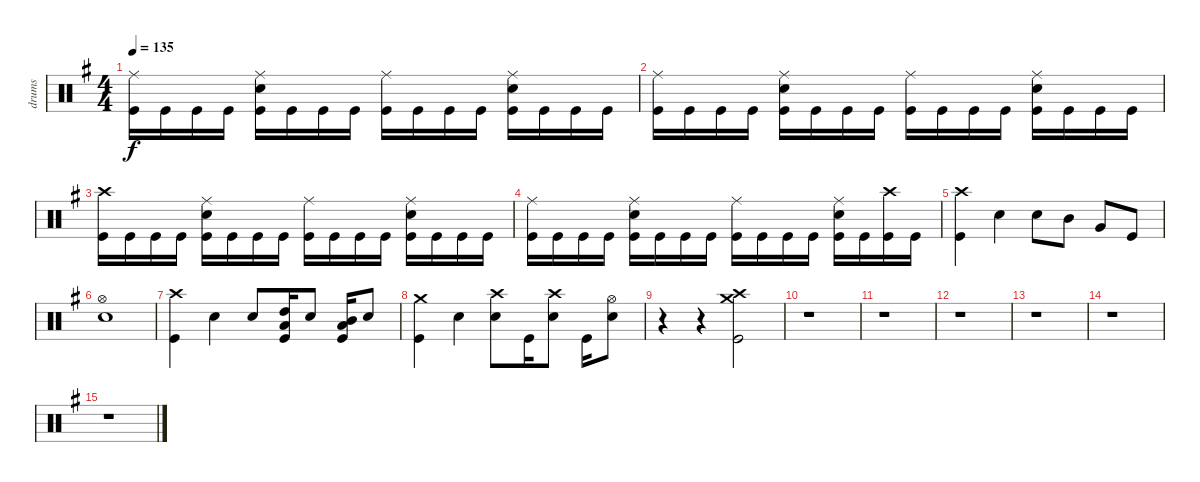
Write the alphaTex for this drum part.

\track ("drums" "drums") {instrument percussion}
\staff {score}
\articulation defaults
\ts (4 4)
\tempo 135
\clef neutral
\ks eminor
("Ride (middle)" "Kick (hit)").16{dy f} "Kick (hit)".16 "Kick (hit)".16 "Kick (hit)".16 ("Ride (middle)" "Snare (hit) 2" "Kick (hit)").16 "Kick (hit)".16 "Kick (hit)".16 "Kick (hit)".16 ("Ride (middle)" "Kick (hit)").16 "Kick (hit)".16 "Kick (hit)".16 "Kick (hit)".16 ("Ride (middle)" "Snare (hit) 2" "Kick (hit)").16 "Kick (hit)".16 "Kick (hit)".16 "Kick (hit)".16 |
("Ride (middle)" "Kick (hit)").16 "Kick (hit)".16 "Kick (hit)".16 "Kick (hit)".16 ("Ride (middle)" "Snare (hit) 2" "Kick (hit)").16 "Kick (hit)".16 "Kick (hit)".16 "Kick (hit)".16 ("Ride (middle)" "Kick (hit)").16 "Kick (hit)".16 "Kick (hit)".16 "Kick (hit)".16 ("Ride (middle)" "Snare (hit) 2" "Kick (hit)").16 "Kick (hit)".16 "Kick (hit)".16 "Kick (hit)".16 |
("Crash high (hit)" "Kick (hit)").16 "Kick (hit)".16 "Kick (hit)".16 "Kick (hit)".16 ("Ride (middle)" "Snare (hit) 2" "Kick (hit)").16 "Kick (hit)".16 "Kick (hit)".16 "Kick (hit)".16 ("Ride (middle)" "Kick (hit)").16 "Kick (hit)".16 "Kick (hit)".16 "Kick (hit)".16 ("Ride (middle)" "Snare (hit) 2" "Kick (hit)").16 "Kick (hit)".16 "Kick (hit)".16 "Kick (hit)".16 |
("Ride (middle)" "Kick (hit)").16 "Kick (hit)".16 "Kick (hit)".16 "Kick (hit)".16 ("Ride (middle)" "Snare (hit) 2" "Kick (hit)").16 "Kick (hit)".16 "Kick (hit)".16 "Kick (hit)".16 ("Ride (middle)" "Kick (hit)").16 "Kick (hit)".16 "Kick (hit)".16 "Kick (hit)".16 ("Ride (middle)" "Snare (hit) 2" "Kick (hit)").16 "Kick (hit)".16 ("Crash high (hit)" "Kick (hit)").16 "Kick (hit)".16 |
("Crash high (hit)" "Kick (hit)").4 "Snare (hit) 2".4 "Snare (hit) 2".8 "Mid Tom (hit)".8 "Very Low Tom (hit)".8 "Kick (hit)".8 |
("Hi-Hat (open)" "Snare (hit) 2").1 |
("Crash high (hit)" "Kick (hit)").4 "Snare (hit) 2".4 "Snare (hit) 2".8 ("High Tom (hit)" "Low Floor Tom (hit)" "Kick (hit)").16 "Snare (hit) 2".8 ("Mid Tom (hit)" "Low Floor Tom (hit)" "Kick (hit)").16 "Snare (hit) 2".8 |
("Crash medium (hit)" "Kick (hit)").4 "Snare (hit) 2".4 ("Crash high (hit)" "Snare (hit) 2").8 "Kick (hit)".16 ("Crash high (hit)" "Snare (hit) 2").8 "Kick (hit)".16 ("Hi-Hat (open)" "Snare (hit) 2").8 |
r.4 r.4 ("Crash high (hit)" "Crash medium (hit)" "Kick (hit)").2 |
r.1 |
r.1 |
r.1 |
r.1 |
r.1 |
r.1
